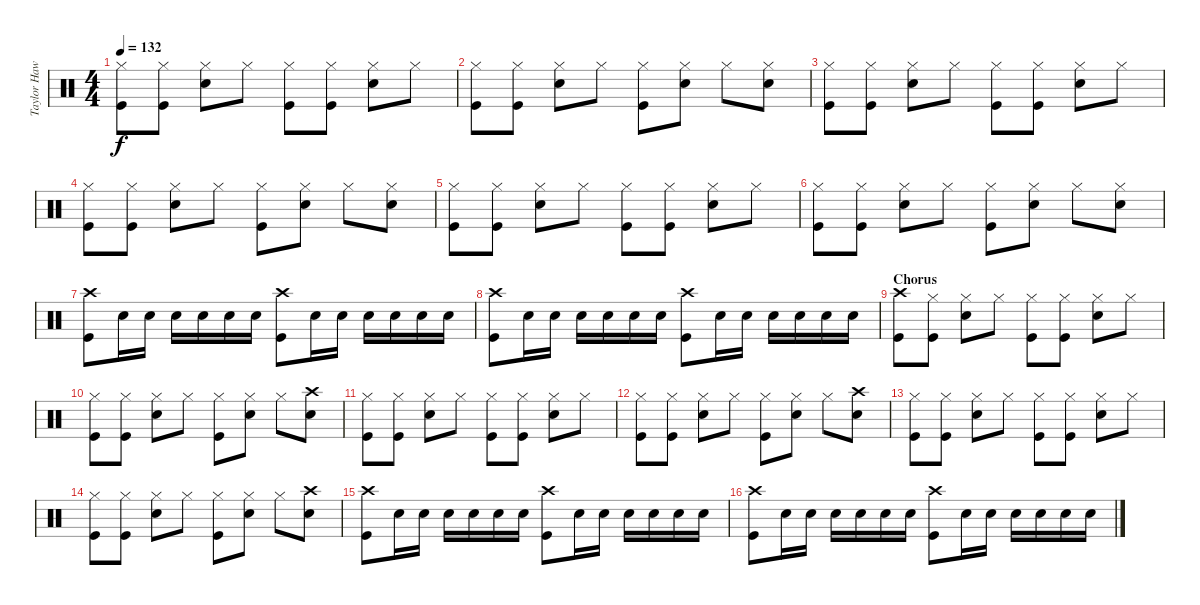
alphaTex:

\track ("Taylor Hawkins (Drums)" "Taylor Haw") {instrument percussion}
\staff {score}
\articulation defaults
\ts (4 4)
\tempo 132
\clef neutral
\ks c
("Kick (hit)" "Hi-Hat (closed)").8{dy f} ("Kick (hit)" "Hi-Hat (closed)").8 ("Snare (hit) 2" "Hi-Hat (closed)").8 "Hi-Hat (closed)".8 ("Kick (hit)" "Hi-Hat (closed)").8 ("Kick (hit)" "Hi-Hat (closed)").8 ("Snare (hit) 2" "Hi-Hat (closed)").8 "Hi-Hat (closed)".8 |
("Kick (hit)" "Hi-Hat (closed)").8 ("Kick (hit)" "Hi-Hat (closed)").8 ("Snare (hit) 2" "Hi-Hat (closed)").8 "Hi-Hat (closed)".8 ("Kick (hit)" "Hi-Hat (closed)").8 ("Snare (hit) 2" "Hi-Hat (closed)").8 "Hi-Hat (closed)".8 ("Snare (hit) 2" "Hi-Hat (closed)").8 |
("Kick (hit)" "Hi-Hat (closed)").8 ("Kick (hit)" "Hi-Hat (closed)").8 ("Snare (hit) 2" "Hi-Hat (closed)").8 "Hi-Hat (closed)".8 ("Kick (hit)" "Hi-Hat (closed)").8 ("Kick (hit)" "Hi-Hat (closed)").8 ("Snare (hit) 2" "Hi-Hat (closed)").8 "Hi-Hat (closed)".8 |
("Kick (hit)" "Hi-Hat (closed)").8 ("Kick (hit)" "Hi-Hat (closed)").8 ("Snare (hit) 2" "Hi-Hat (closed)").8 "Hi-Hat (closed)".8 ("Kick (hit)" "Hi-Hat (closed)").8 ("Snare (hit) 2" "Hi-Hat (closed)").8 "Hi-Hat (closed)".8 ("Snare (hit) 2" "Hi-Hat (closed)").8 |
("Kick (hit)" "Hi-Hat (closed)").8 ("Kick (hit)" "Hi-Hat (closed)").8 ("Snare (hit) 2" "Hi-Hat (closed)").8 "Hi-Hat (closed)".8 ("Kick (hit)" "Hi-Hat (closed)").8 ("Kick (hit)" "Hi-Hat (closed)").8 ("Snare (hit) 2" "Hi-Hat (closed)").8 "Hi-Hat (closed)".8 |
("Kick (hit)" "Hi-Hat (closed)").8 ("Kick (hit)" "Hi-Hat (closed)").8 ("Snare (hit) 2" "Hi-Hat (closed)").8 "Hi-Hat (closed)".8 ("Kick (hit)" "Hi-Hat (closed)").8 ("Snare (hit) 2" "Hi-Hat (closed)").8 "Hi-Hat (closed)".8 ("Snare (hit) 2" "Hi-Hat (closed)").8 |
("Crash high (hit)" "Kick (hit)").8 "Snare (hit) 2".16 "Snare (hit) 2".16 "Snare (hit) 2".16 "Snare (hit) 2".16 "Snare (hit) 2".16 "Snare (hit) 2".16 ("Crash high (hit)" "Kick (hit)").8 "Snare (hit) 2".16 "Snare (hit) 2".16 "Snare (hit) 2".16 "Snare (hit) 2".16 "Snare (hit) 2".16 "Snare (hit) 2".16 |
("Crash high (hit)" "Kick (hit)").8 "Snare (hit) 2".16 "Snare (hit) 2".16 "Snare (hit) 2".16 "Snare (hit) 2".16 "Snare (hit) 2".16 "Snare (hit) 2".16 ("Crash high (hit)" "Kick (hit)").8 "Snare (hit) 2".16 "Snare (hit) 2".16 "Snare (hit) 2".16 "Snare (hit) 2".16 "Snare (hit) 2".16 "Snare (hit) 2".16 |
\section ("" "Chorus")
("Crash high (hit)" "Kick (hit)").8 ("Hi-Hat (closed)" "Kick (hit)").8 ("Hi-Hat (closed)" "Snare (hit) 2").8 "Hi-Hat (closed)".8 ("Hi-Hat (closed)" "Kick (hit)").8 ("Hi-Hat (closed)" "Kick (hit)").8 ("Hi-Hat (closed)" "Snare (hit) 2").8 "Hi-Hat (closed)".8 |
("Hi-Hat (closed)" "Kick (hit)").8 ("Hi-Hat (closed)" "Kick (hit)").8 ("Hi-Hat (closed)" "Snare (hit) 2").8 "Hi-Hat (closed)".8 ("Hi-Hat (closed)" "Kick (hit)").8 ("Hi-Hat (closed)" "Snare (hit) 2").8 "Hi-Hat (closed)".8 ("Crash high (hit)" "Snare (hit) 2").8 |
("Kick (hit)" "Hi-Hat (closed)").8 ("Hi-Hat (closed)" "Kick (hit)").8 ("Hi-Hat (closed)" "Snare (hit) 2").8 "Hi-Hat (closed)".8 ("Hi-Hat (closed)" "Kick (hit)").8 ("Hi-Hat (closed)" "Kick (hit)").8 ("Hi-Hat (closed)" "Snare (hit) 2").8 "Hi-Hat (closed)".8 |
("Hi-Hat (closed)" "Kick (hit)").8 ("Hi-Hat (closed)" "Kick (hit)").8 ("Hi-Hat (closed)" "Snare (hit) 2").8 "Hi-Hat (closed)".8 ("Hi-Hat (closed)" "Kick (hit)").8 ("Hi-Hat (closed)" "Snare (hit) 2").8 "Hi-Hat (closed)".8 ("Crash high (hit)" "Snare (hit) 2").8 |
("Kick (hit)" "Hi-Hat (closed)").8 ("Hi-Hat (closed)" "Kick (hit)").8 ("Hi-Hat (closed)" "Snare (hit) 2").8 "Hi-Hat (closed)".8 ("Hi-Hat (closed)" "Kick (hit)").8 ("Hi-Hat (closed)" "Kick (hit)").8 ("Hi-Hat (closed)" "Snare (hit) 2").8 "Hi-Hat (closed)".8 |
("Hi-Hat (closed)" "Kick (hit)").8 ("Hi-Hat (closed)" "Kick (hit)").8 ("Hi-Hat (closed)" "Snare (hit) 2").8 "Hi-Hat (closed)".8 ("Hi-Hat (closed)" "Kick (hit)").8 ("Hi-Hat (closed)" "Snare (hit) 2").8 "Hi-Hat (closed)".8 ("Crash high (hit)" "Snare (hit) 2").8 |
("Crash high (hit)" "Kick (hit)").8 "Snare (hit) 2".16 "Snare (hit) 2".16 "Snare (hit) 2".16 "Snare (hit) 2".16 "Snare (hit) 2".16 "Snare (hit) 2".16 ("Crash high (hit)" "Kick (hit)").8 "Snare (hit) 2".16 "Snare (hit) 2".16 "Snare (hit) 2".16 "Snare (hit) 2".16 "Snare (hit) 2".16 "Snare (hit) 2".16 |
("Crash high (hit)" "Kick (hit)").8 "Snare (hit) 2".16 "Snare (hit) 2".16 "Snare (hit) 2".16 "Snare (hit) 2".16 "Snare (hit) 2".16 "Snare (hit) 2".16 ("Crash high (hit)" "Kick (hit)").8 "Snare (hit) 2".16 "Snare (hit) 2".16 "Snare (hit) 2".16 "Snare (hit) 2".16 "Snare (hit) 2".16 "Snare (hit) 2".16
